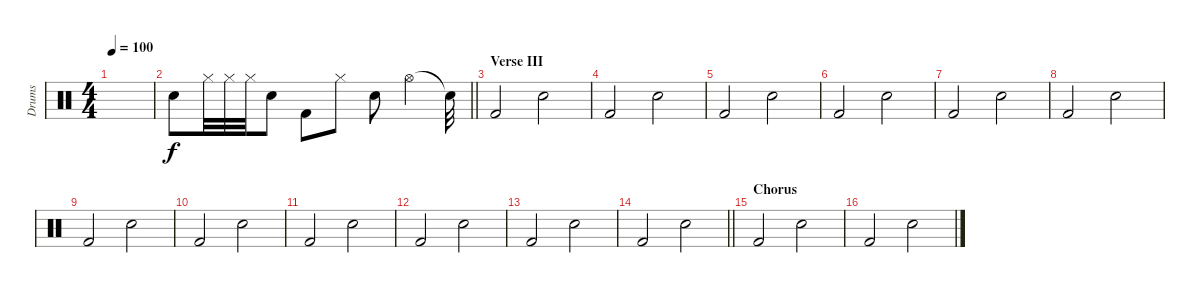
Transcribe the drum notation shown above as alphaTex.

\track ("Drums" "Drums") {instrument percussion}
\staff {score}
\articulation defaults
\ts (4 4)
\tempo 100
\clef neutral
\ks c
|
\barLineRight lightlight "Snare (hit) 2".8 "Hi-Hat (closed)".32 "Hi-Hat (closed)".32 "Hi-Hat (closed)".32 "Snare (hit) 2".8 "Kick (hit) 2".8 "Hi-Hat (closed)".8 "Snare (hit) 2".8 "Hi-Hat (open)".4 "Snare (hit)"{t}.32
|
\section ("" "Verse III")
"Kick (hit) 2".2 "Snare (hit) 2".2 |
"Kick (hit) 2".2 "Snare (hit) 2".2 |
"Kick (hit) 2".2 "Snare (hit) 2".2 |
"Kick (hit) 2".2 "Snare (hit) 2".2 |
"Kick (hit) 2".2 "Snare (hit) 2".2 |
"Kick (hit) 2".2 "Snare (hit) 2".2 |
"Kick (hit) 2".2 "Snare (hit) 2".2 |
"Kick (hit) 2".2 "Snare (hit) 2".2 |
"Kick (hit) 2".2 "Snare (hit) 2".2 |
"Kick (hit) 2".2 "Snare (hit) 2".2 |
"Kick (hit) 2".2 "Snare (hit) 2".2 |
\barLineRight lightlight "Kick (hit) 2".2 "Snare (hit) 2".2
|
\section ("" "Chorus")
"Kick (hit) 2".2 "Snare (hit) 2".2 |
"Kick (hit) 2".2 "Snare (hit) 2".2
